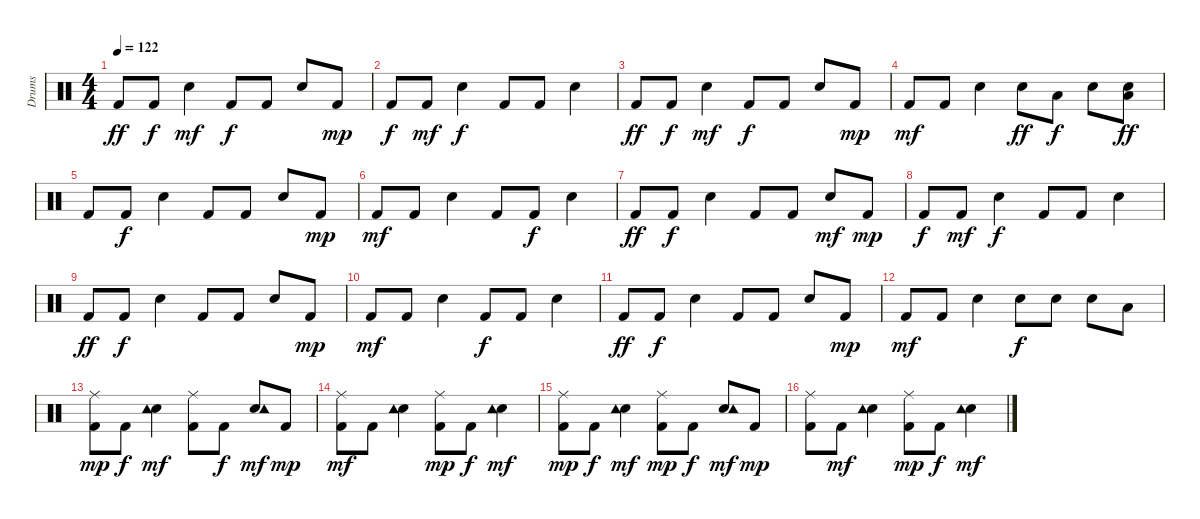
\track ("Drums" "Drums") {instrument percussion}
\staff {score}
\articulation defaults
\ts (4 4)
\tempo 122
\clef neutral
\ks c "Kick (hit) 2".8{dy ff} "Kick (hit) 2".8{dy f} "Snare (hit) 2".4{dy mf} "Kick (hit) 2".8{dy f} "Kick (hit) 2".8 "Snare (hit) 2".8 "Kick (hit) 2".8{dy mp}
|
"Kick (hit) 2".8{dy f} "Kick (hit) 2".8{dy mf} "Snare (hit) 2".4{dy f} "Kick (hit) 2".8 "Kick (hit) 2".8 "Snare (hit) 2".4 |
"Kick (hit) 2".8{dy ff} "Kick (hit) 2".8{dy f} "Snare (hit) 2".4{dy mf} "Kick (hit) 2".8{dy f} "Kick (hit) 2".8 "Snare (hit) 2".8 "Kick (hit) 2".8{dy mp} |
"Kick (hit) 2".8{dy mf} "Kick (hit) 2".8 "Snare (hit) 2".4 "Snare (hit) 2".8{dy ff} "Low Floor Tom (hit)".8{dy f} "Snare (hit) 2".8 ("Snare (hit) 2" "Low Floor Tom (hit)").8{dy ff} |
"Kick (hit) 2".8 "Kick (hit) 2".8{dy f} "Snare (hit) 2".4 "Kick (hit) 2".8 "Kick (hit) 2".8 "Snare (hit) 2".8 "Kick (hit) 2".8{dy mp} |
"Kick (hit) 2".8{dy mf} "Kick (hit) 2".8 "Snare (hit) 2".4 "Kick (hit) 2".8 "Kick (hit) 2".8{dy f} "Snare (hit) 2".4 |
"Kick (hit) 2".8{dy ff} "Kick (hit) 2".8{dy f} "Snare (hit) 2".4 "Kick (hit) 2".8 "Kick (hit) 2".8 "Snare (hit) 2".8{dy mf} "Kick (hit) 2".8{dy mp} |
"Kick (hit) 2".8{dy f} "Kick (hit) 2".8{dy mf} "Snare (hit) 2".4{dy f} "Kick (hit) 2".8 "Kick (hit) 2".8 "Snare (hit) 2".4 |
"Kick (hit) 2".8{dy ff} "Kick (hit) 2".8{dy f} "Snare (hit) 2".4 "Kick (hit) 2".8 "Kick (hit) 2".8 "Snare (hit) 2".8 "Kick (hit) 2".8{dy mp} |
"Kick (hit) 2".8{dy mf} "Kick (hit) 2".8 "Snare (hit) 2".4 "Kick (hit) 2".8{dy f} "Kick (hit) 2".8 "Snare (hit) 2".4 |
"Kick (hit) 2".8{dy ff} "Kick (hit) 2".8{dy f} "Snare (hit) 2".4 "Kick (hit) 2".8 "Kick (hit) 2".8 "Snare (hit) 2".8 "Kick (hit) 2".8{dy mp} |
"Kick (hit) 2".8{dy mf} "Kick (hit) 2".8 "Snare (hit) 2".4 "Snare (hit) 2".8{dy f} "Snare (hit) 2".8 "Snare (hit) 2".8 "Low Tom (hit)".8 |
("Kick (hit) 2" "Ride (middle)").8{dy mp} "Kick (hit) 2".8{dy f} ("Snare (hit) 2" "Tambourine (hit)").4{dy mf} ("Kick (hit) 2" "Ride (middle)").8 "Kick (hit) 2".8{dy f} ("Snare (hit) 2" "Tambourine (hit)").8{dy mf} "Kick (hit) 2".8{dy mp} |
("Kick (hit) 2" "Ride (middle)").8{dy mf} "Kick (hit) 2".8 ("Snare (hit) 2" "Tambourine (hit)").4 ("Kick (hit) 2" "Ride (middle)").8{dy mp} "Kick (hit) 2".8{dy f} ("Snare (hit) 2" "Tambourine (hit)").4{dy mf} |
("Kick (hit) 2" "Ride (middle)").8{dy mp} "Kick (hit) 2".8{dy f} ("Snare (hit) 2" "Tambourine (hit)").4{dy mf} ("Kick (hit) 2" "Ride (middle)").8{dy mp} "Kick (hit) 2".8{dy f} ("Snare (hit) 2" "Tambourine (hit)").8{dy mf} "Kick (hit) 2".8{dy mp} |
("Kick (hit) 2" "Ride (middle)").8 "Kick (hit) 2".8{dy mf} ("Snare (hit) 2" "Tambourine (hit)").4 ("Kick (hit) 2" "Ride (middle)").8{dy mp} "Kick (hit) 2".8{dy f} ("Snare (hit) 2" "Tambourine (hit)").4{dy mf}
